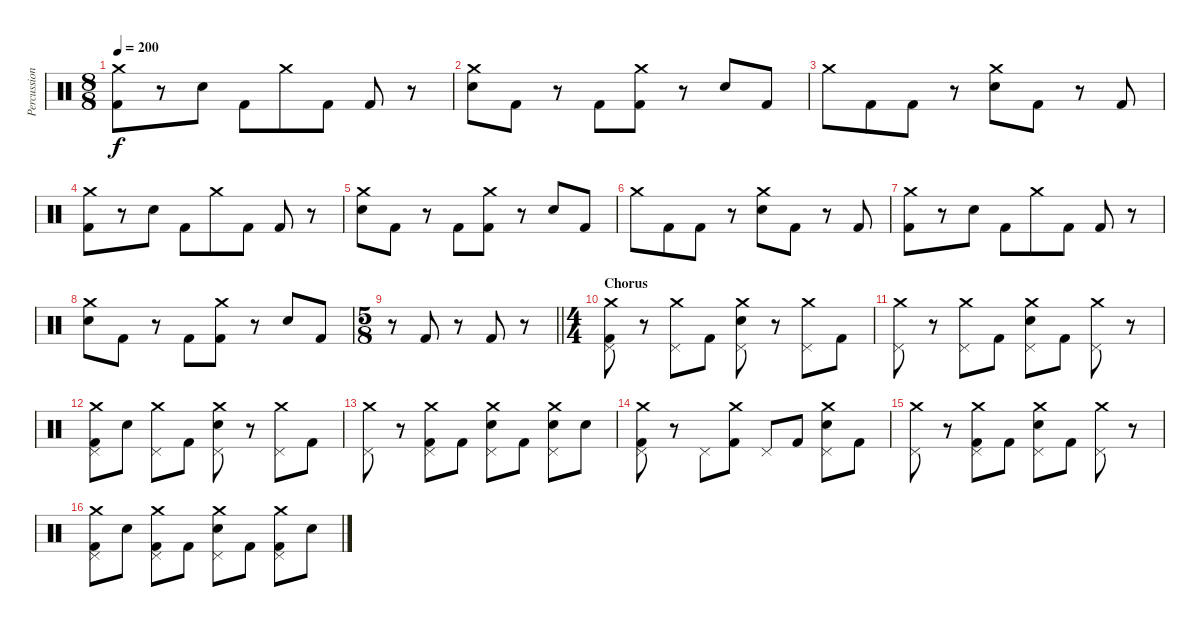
\track ("Percussions" "Percussion") {instrument percussion}
\staff {score}
\articulation defaults
\ts (8 8)
\tempo 200
\clef neutral
\ks c
("Crash medium (hit)" "Kick (hit) 2").8{dy f} r.8 "Electric Snare (hit)".8 "Kick (hit) 2".8 "Crash medium (hit)".8 "Kick (hit) 2".8 "Kick (hit) 2".8 r.8 |
("Crash medium (hit)" "Electric Snare (hit)").8 "Kick (hit) 2".8 r.8 "Kick (hit) 2".8 ("Crash medium (hit)" "Kick (hit) 2").8 r.8 "Electric Snare (hit)".8 "Kick (hit) 2".8 |
"Crash medium (hit)".8 "Kick (hit) 2".8 "Kick (hit) 2".8 r.8 ("Crash medium (hit)" "Electric Snare (hit)").8 "Kick (hit) 2".8 r.8 "Kick (hit) 2".8 |
("Crash medium (hit)" "Kick (hit) 2").8 r.8 "Electric Snare (hit)".8 "Kick (hit) 2".8 "Crash medium (hit)".8 "Kick (hit) 2".8 "Kick (hit) 2".8 r.8 |
("Crash medium (hit)" "Electric Snare (hit)").8 "Kick (hit) 2".8 r.8 "Kick (hit) 2".8 ("Crash medium (hit)" "Kick (hit) 2").8 r.8 "Electric Snare (hit)".8 "Kick (hit) 2".8 |
"Crash medium (hit)".8 "Kick (hit) 2".8 "Kick (hit) 2".8 r.8 ("Crash medium (hit)" "Electric Snare (hit)").8 "Kick (hit) 2".8 r.8 "Kick (hit) 2".8 |
("Crash medium (hit)" "Kick (hit) 2").8 r.8 "Electric Snare (hit)".8 "Kick (hit) 2".8 "Crash medium (hit)".8 "Kick (hit) 2".8 "Kick (hit) 2".8 r.8 |
("Crash medium (hit)" "Electric Snare (hit)").8 "Kick (hit) 2".8 r.8 "Kick (hit) 2".8 ("Crash medium (hit)" "Kick (hit) 2").8 r.8 "Electric Snare (hit)".8 "Kick (hit) 2".8 |
\ts (5 8)
\barLineRight lightlight
r.8 "Kick (hit) 2".8 r.8 "Kick (hit) 2".8 r.8 |
\ts (4 4)
\section ("" "Chorus")
("Crash medium (hit)" "Pedal Hi-Hat (hit)" "Kick (hit) 2").8 r.8 ("Crash medium (hit)" "Pedal Hi-Hat (hit)").8 "Kick (hit) 2".8 ("Crash medium (hit)" "Pedal Hi-Hat (hit)" "Electric Snare (hit)").8 r.8 ("Crash medium (hit)" "Pedal Hi-Hat (hit)").8 "Kick (hit) 2".8 |
("Crash medium (hit)" "Pedal Hi-Hat (hit)").8 r.8 ("Crash medium (hit)" "Pedal Hi-Hat (hit)").8 "Kick (hit) 2".8 ("Crash medium (hit)" "Pedal Hi-Hat (hit)" "Electric Snare (hit)").8 "Kick (hit) 2".8 ("Crash medium (hit)" "Pedal Hi-Hat (hit)").8 r.8 |
("Crash medium (hit)" "Pedal Hi-Hat (hit)" "Kick (hit) 2").8 "Electric Snare (hit)".8 ("Crash medium (hit)" "Pedal Hi-Hat (hit)").8 "Kick (hit) 2".8 ("Crash medium (hit)" "Pedal Hi-Hat (hit)" "Electric Snare (hit)").8 r.8 ("Crash medium (hit)" "Pedal Hi-Hat (hit)").8 "Kick (hit) 2".8 |
("Crash medium (hit)" "Pedal Hi-Hat (hit)").8 r.8 ("Crash medium (hit)" "Pedal Hi-Hat (hit)" "Kick (hit) 2").8 "Kick (hit) 2".8 ("Crash medium (hit)" "Pedal Hi-Hat (hit)" "Electric Snare (hit)").8 "Kick (hit) 2".8 ("Crash medium (hit)" "Pedal Hi-Hat (hit)" "Electric Snare (hit)").8 "Electric Snare (hit)".8 |
("Crash medium (hit)" "Pedal Hi-Hat (hit)" "Kick (hit) 2").8 r.8 "Pedal Hi-Hat (hit)".8 ("Crash medium (hit)" "Kick (hit) 2").8 "Pedal Hi-Hat (hit)".8 "Kick (hit) 2".8 ("Crash medium (hit)" "Pedal Hi-Hat (hit)" "Electric Snare (hit)").8 "Kick (hit) 2".8 |
("Crash medium (hit)" "Pedal Hi-Hat (hit)").8 r.8 ("Crash medium (hit)" "Pedal Hi-Hat (hit)" "Kick (hit) 2").8 "Kick (hit) 2".8 ("Crash medium (hit)" "Pedal Hi-Hat (hit)" "Electric Snare (hit)").8 "Kick (hit) 2".8 ("Crash medium (hit)" "Pedal Hi-Hat (hit)").8 r.8 |
("Crash medium (hit)" "Pedal Hi-Hat (hit)" "Kick (hit) 2").8 "Electric Snare (hit)".8 ("Crash medium (hit)" "Pedal Hi-Hat (hit)" "Kick (hit) 2").8 "Kick (hit) 2".8 ("Crash medium (hit)" "Pedal Hi-Hat (hit)" "Electric Snare (hit)").8 "Kick (hit) 2".8 ("Crash medium (hit)" "Pedal Hi-Hat (hit)" "Kick (hit) 2").8 "Electric Snare (hit)".8
